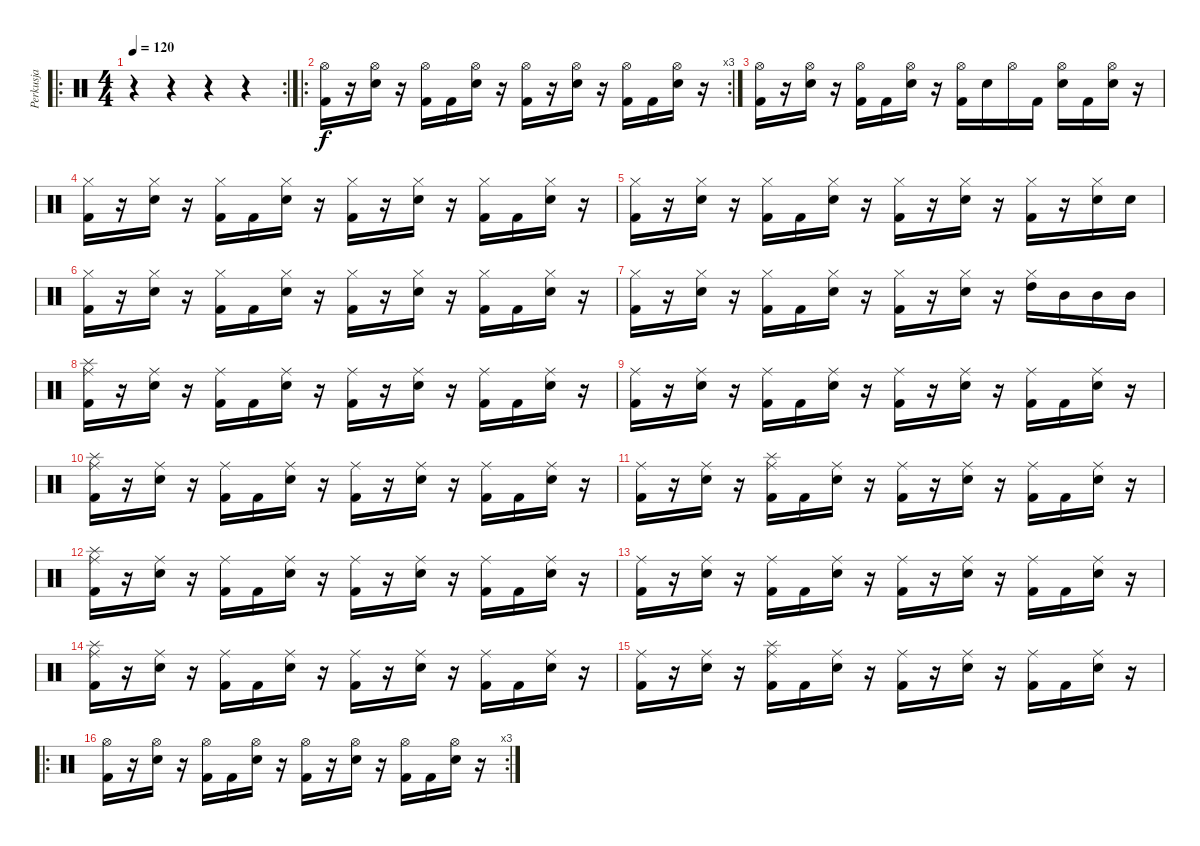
\track ("Perkusja" "Perkusja") {instrument percussion}
\staff {score}
\articulation defaults
\ro
\rc 2
\ts (4 4)
\tempo 120
\clef neutral
\ks c
r.4{dy f} r.4 r.4 r.4 |
\ro
\rc 3
("Hi-Hat (open)" "Kick (hit) 2").16 r.16 ("Hi-Hat (open)" "Electric Snare (hit)").16 r.16 ("Hi-Hat (open)" "Kick (hit) 2").16 "Kick (hit) 2".16 ("Hi-Hat (open)" "Electric Snare (hit)").16 r.16 ("Hi-Hat (open)" "Kick (hit) 2").16 r.16 ("Hi-Hat (open)" "Electric Snare (hit)").16 r.16 ("Hi-Hat (open)" "Kick (hit) 2").16 "Kick (hit) 2".16 ("Hi-Hat (open)" "Electric Snare (hit)").16 r.16 |
("Hi-Hat (open)" "Kick (hit) 2").16 r.16 ("Hi-Hat (open)" "Electric Snare (hit)").16 r.16 ("Hi-Hat (open)" "Kick (hit) 2").16 "Kick (hit) 2".16 ("Hi-Hat (open)" "Electric Snare (hit)").16 r.16 ("Hi-Hat (open)" "Kick (hit) 2").16 "Electric Snare (hit)".16 "Hi-Hat (open)".16 "Kick (hit) 2".16 ("Hi-Hat (open)" "Electric Snare (hit)").16 "Kick (hit) 2".16 ("Hi-Hat (open)" "Electric Snare (hit)").16 r.16 |
("Hi-Hat (closed)" "Kick (hit) 2").16 r.16 ("Hi-Hat (closed)" "Electric Snare (hit)").16 r.16 ("Hi-Hat (closed)" "Kick (hit) 2").16 "Kick (hit) 2".16 ("Hi-Hat (closed)" "Electric Snare (hit)").16 r.16 ("Hi-Hat (closed)" "Kick (hit) 2").16 r.16 ("Hi-Hat (closed)" "Electric Snare (hit)").16 r.16 ("Hi-Hat (closed)" "Kick (hit) 2").16 "Kick (hit) 2".16 ("Hi-Hat (closed)" "Electric Snare (hit)").16 r.16 |
("Hi-Hat (closed)" "Kick (hit) 2").16 r.16 ("Hi-Hat (closed)" "Electric Snare (hit)").16 r.16 ("Hi-Hat (closed)" "Kick (hit) 2").16 "Kick (hit) 2".16 ("Hi-Hat (closed)" "Electric Snare (hit)").16 r.16 ("Hi-Hat (closed)" "Kick (hit) 2").16 r.16 ("Hi-Hat (closed)" "Electric Snare (hit)").16 r.16 ("Hi-Hat (closed)" "Kick (hit) 2").16 r.16 ("Hi-Hat (closed)" "Electric Snare (hit)").16 "Electric Snare (hit)".16 |
("Hi-Hat (closed)" "Kick (hit) 2").16 r.16 ("Hi-Hat (closed)" "Electric Snare (hit)").16 r.16 ("Hi-Hat (closed)" "Kick (hit) 2").16 "Kick (hit) 2".16 ("Hi-Hat (closed)" "Electric Snare (hit)").16 r.16 ("Hi-Hat (closed)" "Kick (hit) 2").16 r.16 ("Hi-Hat (closed)" "Electric Snare (hit)").16 r.16 ("Hi-Hat (closed)" "Kick (hit) 2").16 "Kick (hit) 2".16 ("Hi-Hat (closed)" "Electric Snare (hit)").16 r.16 |
("Hi-Hat (closed)" "Kick (hit) 2").16 r.16 ("Hi-Hat (closed)" "Electric Snare (hit)").16 r.16 ("Hi-Hat (closed)" "Kick (hit) 2").16 "Kick (hit) 2".16 ("Hi-Hat (closed)" "Electric Snare (hit)").16 r.16 ("Hi-Hat (closed)" "Kick (hit) 2").16 r.16 ("Hi-Hat (closed)" "Electric Snare (hit)").16 r.16 ("Hi-Hat (closed)" "High Tom (hit)").16 "Mid Tom (hit)".16 "Mid Tom (hit)".16 "Mid Tom (hit)".16 |
("Splash (hit)" "Ride (middle)" "Kick (hit) 2").16 r.16 ("Ride (middle)" "Electric Snare (hit)").16 r.16 ("Ride (middle)" "Kick (hit) 2").16 "Kick (hit) 2".16 ("Ride (middle)" "Electric Snare (hit)").16 r.16 ("Ride (middle)" "Kick (hit) 2").16 r.16 ("Ride (middle)" "Electric Snare (hit)").16 r.16 ("Ride (middle)" "Kick (hit) 2").16 "Kick (hit) 2".16 ("Ride (middle)" "Electric Snare (hit)").16 r.16 |
("Ride (middle)" "Kick (hit) 2").16 r.16 ("Ride (middle)" "Electric Snare (hit)").16 r.16 ("Ride (middle)" "Kick (hit) 2").16 "Kick (hit) 2".16 ("Ride (middle)" "Electric Snare (hit)").16 r.16 ("Ride (middle)" "Kick (hit) 2").16 r.16 ("Ride (middle)" "Electric Snare (hit)").16 r.16 ("Ride (middle)" "Kick (hit) 2").16 "Kick (hit) 2".16 ("Ride (middle)" "Electric Snare (hit)").16 r.16 |
("Splash (hit)" "Ride (middle)" "Kick (hit) 2").16 r.16 ("Ride (middle)" "Electric Snare (hit)").16 r.16 ("Ride (middle)" "Kick (hit) 2").16 "Kick (hit) 2".16 ("Ride (middle)" "Electric Snare (hit)").16 r.16 ("Ride (middle)" "Kick (hit) 2").16 r.16 ("Ride (middle)" "Electric Snare (hit)").16 r.16 ("Ride (middle)" "Kick (hit) 2").16 "Kick (hit) 2".16 ("Ride (middle)" "Electric Snare (hit)").16 r.16 |
("Ride (middle)" "Kick (hit) 2").16 r.16 ("Ride (middle)" "Electric Snare (hit)").16 r.16 ("Splash (hit)" "Ride (middle)" "Kick (hit) 2").16 "Kick (hit) 2".16 ("Ride (middle)" "Electric Snare (hit)").16 r.16 ("Ride (middle)" "Kick (hit) 2").16 r.16 ("Ride (middle)" "Electric Snare (hit)").16 r.16 ("Ride (middle)" "Kick (hit) 2").16 "Kick (hit) 2".16 ("Ride (middle)" "Electric Snare (hit)").16 r.16 |
("Splash (hit)" "Ride (middle)" "Kick (hit) 2").16 r.16 ("Ride (middle)" "Electric Snare (hit)").16 r.16 ("Ride (middle)" "Kick (hit) 2").16 "Kick (hit) 2".16 ("Ride (middle)" "Electric Snare (hit)").16 r.16 ("Ride (middle)" "Kick (hit) 2").16 r.16 ("Ride (middle)" "Electric Snare (hit)").16 r.16 ("Ride (middle)" "Kick (hit) 2").16 "Kick (hit) 2".16 ("Ride (middle)" "Electric Snare (hit)").16 r.16 |
("Ride (middle)" "Kick (hit) 2").16 r.16 ("Ride (middle)" "Electric Snare (hit)").16 r.16 ("Ride (middle)" "Kick (hit) 2").16 "Kick (hit) 2".16 ("Ride (middle)" "Electric Snare (hit)").16 r.16 ("Ride (middle)" "Kick (hit) 2").16 r.16 ("Ride (middle)" "Electric Snare (hit)").16 r.16 ("Ride (middle)" "Kick (hit) 2").16 "Kick (hit) 2".16 ("Ride (middle)" "Electric Snare (hit)").16 r.16 |
("Splash (hit)" "Ride (middle)" "Kick (hit) 2").16 r.16 ("Ride (middle)" "Electric Snare (hit)").16 r.16 ("Ride (middle)" "Kick (hit) 2").16 "Kick (hit) 2".16 ("Ride (middle)" "Electric Snare (hit)").16 r.16 ("Ride (middle)" "Kick (hit) 2").16 r.16 ("Ride (middle)" "Electric Snare (hit)").16 r.16 ("Ride (middle)" "Kick (hit) 2").16 "Kick (hit) 2".16 ("Ride (middle)" "Electric Snare (hit)").16 r.16 |
("Ride (middle)" "Kick (hit) 2").16 r.16 ("Ride (middle)" "Electric Snare (hit)").16 r.16 ("Splash (hit)" "Ride (middle)" "Kick (hit) 2").16 "Kick (hit) 2".16 ("Ride (middle)" "Electric Snare (hit)").16 r.16 ("Ride (middle)" "Kick (hit) 2").16 r.16 ("Ride (middle)" "Electric Snare (hit)").16 r.16 ("Ride (middle)" "Kick (hit) 2").16 "Kick (hit) 2".16 ("Ride (middle)" "Electric Snare (hit)").16 r.16 |
\ro
\rc 3
("Hi-Hat (open)" "Kick (hit) 2").16 r.16 ("Hi-Hat (open)" "Electric Snare (hit)").16 r.16 ("Hi-Hat (open)" "Kick (hit) 2").16 "Kick (hit) 2".16 ("Hi-Hat (open)" "Electric Snare (hit)").16 r.16 ("Hi-Hat (open)" "Kick (hit) 2").16 r.16 ("Hi-Hat (open)" "Electric Snare (hit)").16 r.16 ("Hi-Hat (open)" "Kick (hit) 2").16 "Kick (hit) 2".16 ("Hi-Hat (open)" "Electric Snare (hit)").16 r.16
